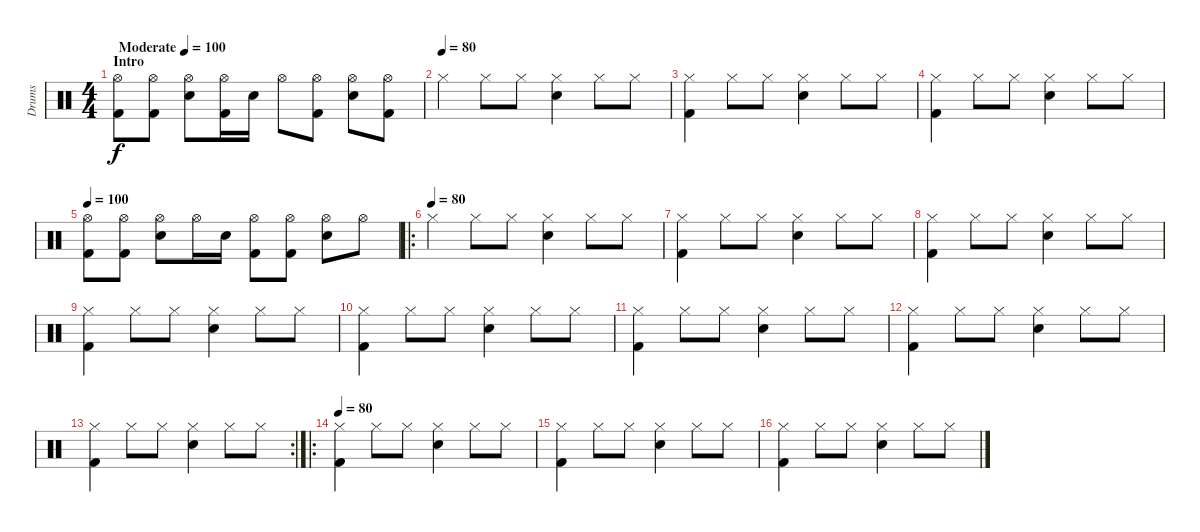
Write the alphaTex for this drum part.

\track ("Drums" "Drums") {instrument percussion}
\staff {score}
\articulation defaults
\ts (4 4)
\section ("" "Intro")
\tempo (100 "Moderate")
\clef neutral
\ks c
("Hi-Hat (open)" "Kick (hit) 2").8{dy f} ("Hi-Hat (open)" "Kick (hit) 2").8 ("Hi-Hat (open)" "Electric Snare (hit)").8 ("Hi-Hat (open)" "Kick (hit) 2").16 "Electric Snare (hit)".16 "Hi-Hat (open)".8 ("Hi-Hat (open)" "Kick (hit) 2").8 ("Hi-Hat (open)" "Electric Snare (hit)").8 ("Hi-Hat (open)" "Kick (hit) 2").8 |
\tempo (80)
"Hi-Hat (closed)".4 "Hi-Hat (closed)".8 "Hi-Hat (closed)".8 ("Hi-Hat (closed)" "Electric Snare (hit)").4 "Hi-Hat (closed)".8 "Hi-Hat (closed)".8 |
("Hi-Hat (closed)" "Kick (hit) 2").4 "Hi-Hat (closed)".8 "Hi-Hat (closed)".8 ("Hi-Hat (closed)" "Electric Snare (hit)").4 "Hi-Hat (closed)".8 "Hi-Hat (closed)".8 |
("Hi-Hat (closed)" "Kick (hit) 2").4 "Hi-Hat (closed)".8 "Hi-Hat (closed)".8 ("Hi-Hat (closed)" "Electric Snare (hit)").4 "Hi-Hat (closed)".8 "Hi-Hat (closed)".8 |
\tempo 100
("Hi-Hat (open)" "Kick (hit) 2").8 ("Hi-Hat (open)" "Kick (hit) 2").8 ("Hi-Hat (open)" "Electric Snare (hit)").8 "Hi-Hat (open)".16 "Electric Snare (hit)".16 ("Hi-Hat (open)" "Kick (hit) 2").8 ("Hi-Hat (open)" "Kick (hit) 2").8 ("Hi-Hat (open)" "Electric Snare (hit)").8 "Hi-Hat (open)".8 |
\ro
\tempo (80)
"Hi-Hat (closed)".4 "Hi-Hat (closed)".8 "Hi-Hat (closed)".8 ("Hi-Hat (closed)" "Electric Snare (hit)").4 "Hi-Hat (closed)".8 "Hi-Hat (closed)".8 |
("Hi-Hat (closed)" "Kick (hit) 2").4 "Hi-Hat (closed)".8 "Hi-Hat (closed)".8 ("Hi-Hat (closed)" "Electric Snare (hit)").4 "Hi-Hat (closed)".8 "Hi-Hat (closed)".8 |
("Hi-Hat (closed)" "Kick (hit) 2").4 "Hi-Hat (closed)".8 "Hi-Hat (closed)".8 ("Hi-Hat (closed)" "Electric Snare (hit)").4 "Hi-Hat (closed)".8 "Hi-Hat (closed)".8 |
("Hi-Hat (closed)" "Kick (hit) 2").4 "Hi-Hat (closed)".8 "Hi-Hat (closed)".8 ("Hi-Hat (closed)" "Electric Snare (hit)").4 "Hi-Hat (closed)".8 "Hi-Hat (closed)".8 |
("Hi-Hat (closed)" "Kick (hit) 2").4 "Hi-Hat (closed)".8 "Hi-Hat (closed)".8 ("Hi-Hat (closed)" "Electric Snare (hit)").4 "Hi-Hat (closed)".8 "Hi-Hat (closed)".8 |
("Hi-Hat (closed)" "Kick (hit) 2").4 "Hi-Hat (closed)".8 "Hi-Hat (closed)".8 ("Hi-Hat (closed)" "Electric Snare (hit)").4 "Hi-Hat (closed)".8 "Hi-Hat (closed)".8 |
("Hi-Hat (closed)" "Kick (hit) 2").4 "Hi-Hat (closed)".8 "Hi-Hat (closed)".8 ("Hi-Hat (closed)" "Electric Snare (hit)").4 "Hi-Hat (closed)".8 "Hi-Hat (closed)".8 |
\rc 2
("Hi-Hat (closed)" "Kick (hit) 2").4 "Hi-Hat (closed)".8 "Hi-Hat (closed)".8 ("Hi-Hat (closed)" "Electric Snare (hit)").4 "Hi-Hat (closed)".8 "Hi-Hat (closed)".8 |
\ro
\tempo 80
("Hi-Hat (closed)" "Kick (hit) 2").4 "Hi-Hat (closed)".8 "Hi-Hat (closed)".8 ("Hi-Hat (closed)" "Electric Snare (hit)").4 "Hi-Hat (closed)".8 "Hi-Hat (closed)".8 |
("Hi-Hat (closed)" "Kick (hit) 2").4 "Hi-Hat (closed)".8 "Hi-Hat (closed)".8 ("Hi-Hat (closed)" "Electric Snare (hit)").4 "Hi-Hat (closed)".8 "Hi-Hat (closed)".8 |
("Hi-Hat (closed)" "Kick (hit) 2").4 "Hi-Hat (closed)".8 "Hi-Hat (closed)".8 ("Hi-Hat (closed)" "Electric Snare (hit)").4 "Hi-Hat (closed)".8 "Hi-Hat (closed)".8
